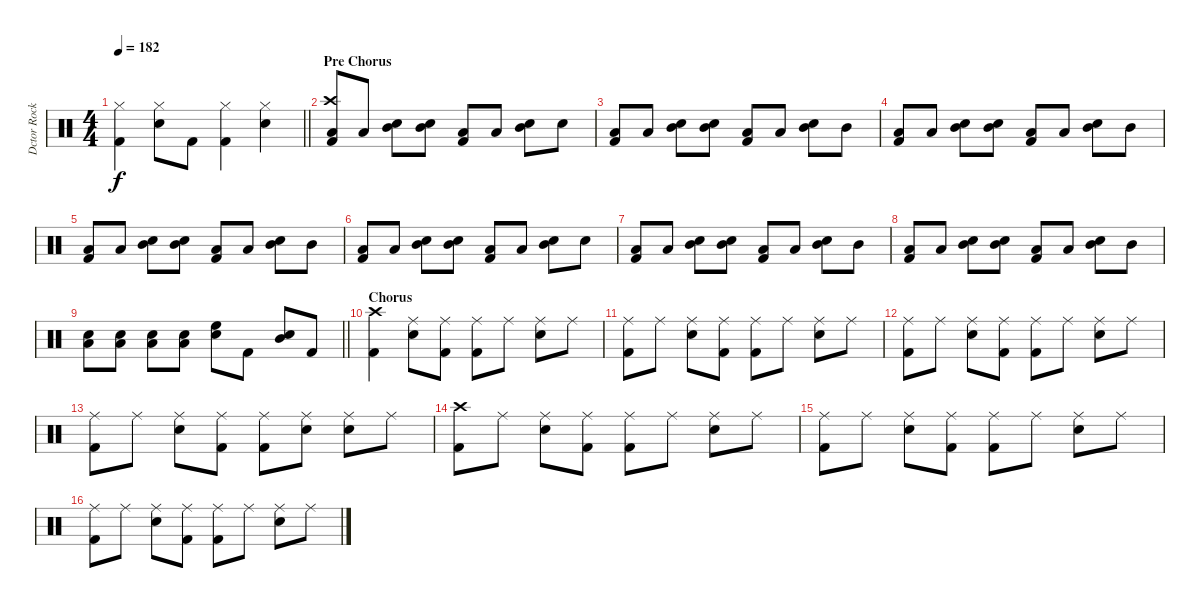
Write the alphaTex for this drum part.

\track ("Dctor Rock" "Dctor Rock") {instrument percussion}
\staff {score}
\articulation defaults
\ts (4 4)
\tempo 182
\clef neutral
\barLineRight lightlight
\ks c
("Hi-Hat (closed)" "Kick (hit) 2").4{dy f} ("Hi-Hat (closed)" "Snare (hit) 2").8 "Kick (hit) 2".8 ("Hi-Hat (closed)" "Kick (hit) 2").4 ("Hi-Hat (closed)" "Snare (hit) 2").4 |
\section ("" "Pre Chorus")
("Crash high (hit)" "Low Tom (hit)" "Kick (hit) 2").8 "Low Tom (hit)".8 ("Mid Tom (hit)" "Snare (hit) 2").8 ("Mid Tom (hit)" "Snare (hit) 2").8 ("Low Tom (hit)" "Kick (hit) 2").8 "Low Tom (hit)".8 ("Mid Tom (hit)" "Snare (hit) 2").8 "Snare (hit) 2".8 |
("Low Tom (hit)" "Kick (hit) 2").8 "Low Tom (hit)".8 ("Mid Tom (hit)" "Snare (hit) 2").8 ("Mid Tom (hit)" "Snare (hit) 2").8 ("Low Tom (hit)" "Kick (hit) 2").8 "Low Tom (hit)".8 ("Mid Tom (hit)" "Snare (hit) 2").8 "Mid Tom (hit)".8 |
("Low Tom (hit)" "Kick (hit) 2").8 "Low Tom (hit)".8 ("Mid Tom (hit)" "Snare (hit) 2").8 ("Mid Tom (hit)" "Snare (hit) 2").8 ("Low Tom (hit)" "Kick (hit) 2").8 "Low Tom (hit)".8 ("Mid Tom (hit)" "Snare (hit) 2").8 "Mid Tom (hit)".8 |
("Low Tom (hit)" "Kick (hit) 2").8 "Low Tom (hit)".8 ("Mid Tom (hit)" "Snare (hit) 2").8 ("Mid Tom (hit)" "Snare (hit) 2").8 ("Low Tom (hit)" "Kick (hit) 2").8 "Low Tom (hit)".8 ("Mid Tom (hit)" "Snare (hit) 2").8 "Mid Tom (hit)".8 |
("Low Tom (hit)" "Kick (hit) 2").8 "Low Tom (hit)".8 ("Mid Tom (hit)" "Snare (hit) 2").8 ("Mid Tom (hit)" "Snare (hit) 2").8 ("Low Tom (hit)" "Kick (hit) 2").8 "Low Tom (hit)".8 ("Mid Tom (hit)" "Snare (hit) 2").8 "Snare (hit) 2".8 |
("Low Tom (hit)" "Kick (hit) 2").8 "Low Tom (hit)".8 ("Mid Tom (hit)" "Snare (hit) 2").8 ("Mid Tom (hit)" "Snare (hit) 2").8 ("Low Tom (hit)" "Kick (hit) 2").8 "Low Tom (hit)".8 ("Mid Tom (hit)" "Snare (hit) 2").8 "Mid Tom (hit)".8 |
("Low Tom (hit)" "Kick (hit) 2").8 "Low Tom (hit)".8 ("Mid Tom (hit)" "Snare (hit) 2").8 ("Mid Tom (hit)" "Snare (hit) 2").8 ("Low Tom (hit)" "Kick (hit) 2").8 "Low Tom (hit)".8 ("Mid Tom (hit)" "Snare (hit) 2").8 "Mid Tom (hit)".8 |
\barLineRight lightlight
("Snare (hit) 2" "Low Tom (hit)").8 ("Snare (hit) 2" "Low Tom (hit)").8 ("Snare (hit) 2" "Low Tom (hit)").8 ("Snare (hit) 2" "Low Tom (hit)").8 ("High Floor Tom (hit)" "Snare (hit) 2").8 "Kick (hit) 2".8 ("Mid Tom (hit)" "Snare (hit) 2").8 "Kick (hit) 2".8 |
\section ("" "Chorus")
("Crash high (hit)" "Kick (hit) 2").4 ("Ride (middle)" "Snare (hit) 2").8 ("Ride (middle)" "Kick (hit) 2").8 ("Ride (middle)" "Kick (hit) 2").8 "Ride (middle)".8 ("Ride (middle)" "Snare (hit) 2").8 "Ride (middle)".8 |
("Ride (middle)" "Kick (hit) 2").8 "Ride (middle)".8 ("Ride (middle)" "Snare (hit) 2").8 ("Ride (middle)" "Kick (hit) 2").8 ("Ride (middle)" "Kick (hit) 2").8 "Ride (middle)".8 ("Ride (middle)" "Snare (hit) 2").8 "Ride (middle)".8 |
("Ride (middle)" "Kick (hit) 2").8 "Ride (middle)".8 ("Ride (middle)" "Snare (hit) 2").8 ("Ride (middle)" "Kick (hit) 2").8 ("Ride (middle)" "Kick (hit) 2").8 "Ride (middle)".8 ("Ride (middle)" "Snare (hit) 2").8 "Ride (middle)".8 |
("Ride (middle)" "Kick (hit) 2").8 "Ride (middle)".8 ("Ride (middle)" "Snare (hit) 2").8 ("Ride (middle)" "Kick (hit) 2").8 ("Ride (middle)" "Kick (hit) 2").8 ("Ride (middle)" "Snare (hit) 2").8 ("Ride (middle)" "Snare (hit) 2").8 "Ride (middle)".8 |
("Crash high (hit)" "Kick (hit) 2").8 "Ride (middle)".8 ("Ride (middle)" "Snare (hit) 2").8 ("Ride (middle)" "Kick (hit) 2").8 ("Ride (middle)" "Kick (hit) 2").8 "Ride (middle)".8 ("Ride (middle)" "Snare (hit) 2").8 "Ride (middle)".8 |
("Ride (middle)" "Kick (hit) 2").8 "Ride (middle)".8 ("Ride (middle)" "Snare (hit) 2").8 ("Ride (middle)" "Kick (hit) 2").8 ("Ride (middle)" "Kick (hit) 2").8 "Ride (middle)".8 ("Ride (middle)" "Snare (hit) 2").8 "Ride (middle)".8 |
("Ride (middle)" "Kick (hit) 2").8 "Ride (middle)".8 ("Ride (middle)" "Snare (hit) 2").8 ("Ride (middle)" "Kick (hit) 2").8 ("Ride (middle)" "Kick (hit) 2").8 "Ride (middle)".8 ("Ride (middle)" "Snare (hit) 2").8 "Ride (middle)".8
